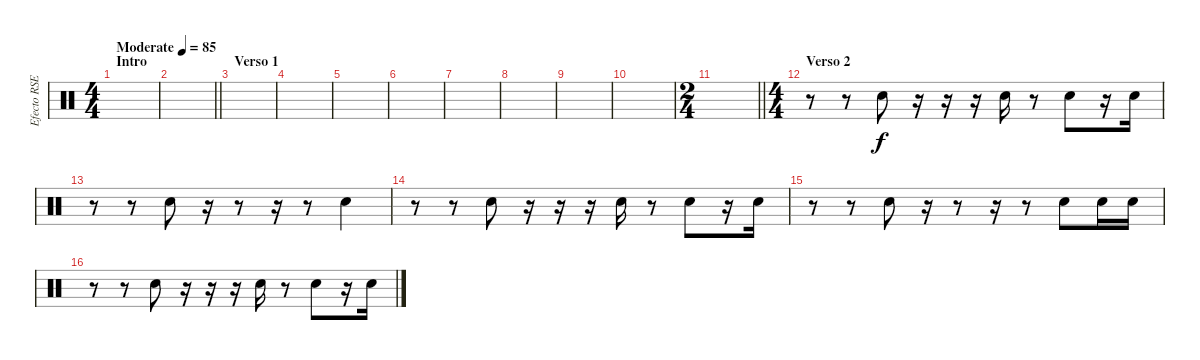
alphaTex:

\track ("Efecto RSE (GP5)" "Efecto RSE") {instrument percussion}
\staff {score}
\articulation defaults
\ts (4 4)
\section ("" "Intro")
\tempo (85 "Moderate")
\clef neutral
\ks c
|
\barLineRight lightlight
|
\section ("" "Verso 1")
|
|
|
|
|
|
|
|
\ts (2 4)
\barLineRight lightlight
|
\ts (4 4)
\section ("" "Verso 2")
r.8 r.8 "Electric Snare (hit)".8 r.16 r.16 r.16 "Electric Snare (hit)".16 r.8 "Electric Snare (hit)".8 r.16 "Electric Snare (hit)".16 |
r.8 r.8 "Electric Snare (hit)".8 r.16 r.8 r.16 r.8 "Electric Snare (hit)".4 |
r.8 r.8 "Electric Snare (hit)".8 r.16 r.16 r.16 "Electric Snare (hit)".16 r.8 "Electric Snare (hit)".8 r.16 "Electric Snare (hit)".16 |
r.8 r.8 "Electric Snare (hit)".8 r.16 r.8 r.16 r.8 "Electric Snare (hit)".8 "Electric Snare (hit)".16 "Electric Snare (hit)".16 |
r.8 r.8 "Electric Snare (hit)".8 r.16 r.16 r.16 "Electric Snare (hit)".16 r.8 "Electric Snare (hit)".8 r.16 "Electric Snare (hit)".16
